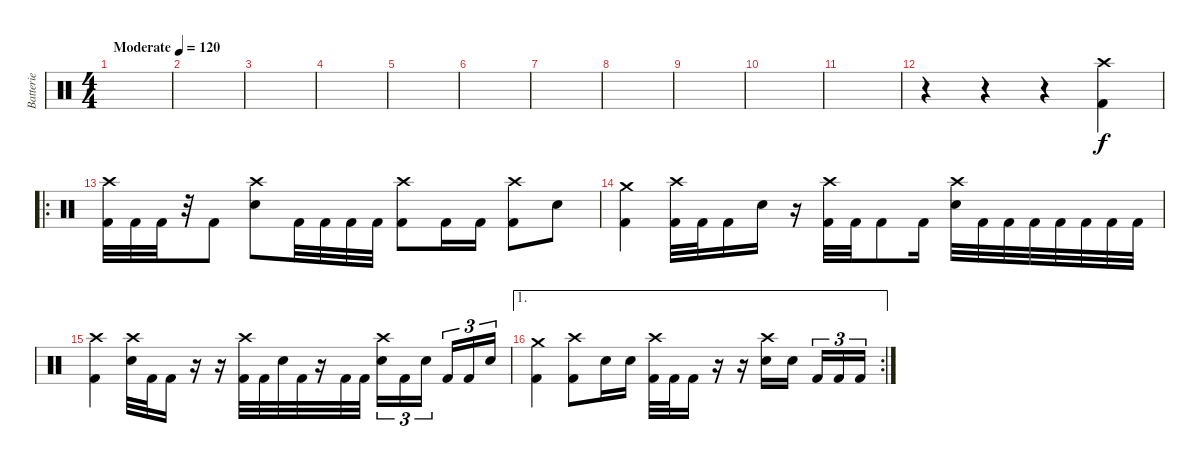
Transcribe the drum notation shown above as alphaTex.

\track ("Batterie" "Batterie") {instrument percussion}
\staff {score}
\articulation defaults
\ts (4 4)
\tempo (120 "Moderate")
\clef neutral
\ks c
|
|
|
|
|
|
|
|
|
|
|
r.4 r.4 r.4 ("Crash high (hit)" "Kick (hit) 2").4 |
\ro
("Crash high (hit)" "Kick (hit) 2").32 "Kick (hit) 2".32 "Kick (hit) 2".32 r.32 "Kick (hit) 2".8 ("Crash high (hit)" "Electric Snare (hit)").8 "Kick (hit) 2".32 "Kick (hit) 2".32 "Kick (hit) 2".32 "Kick (hit) 2".32 ("Crash high (hit)" "Kick (hit) 2").8 "Kick (hit) 2".16 "Kick (hit) 2".16 ("Crash high (hit)" "Kick (hit) 2").8 "Electric Snare (hit)".8 |
("Crash medium (hit)" "Kick (hit) 2").4 ("Crash high (hit)" "Kick (hit) 2").32 "Kick (hit) 2".32 "Kick (hit) 2".16 "Electric Snare (hit)".16 r.16 ("Crash high (hit)" "Kick (hit) 2").32 "Kick (hit) 2".32 "Kick (hit) 2".8 "Kick (hit) 2".16 ("Crash high (hit)" "Electric Snare (hit)").32 "Kick (hit) 2".32 "Kick (hit) 2".32 "Kick (hit) 2".32 "Kick (hit) 2".32 "Kick (hit) 2".32 "Kick (hit) 2".32 "Kick (hit) 2".32 |
("Crash high (hit)" "Kick (hit) 2").4 ("Crash high (hit)" "Electric Snare (hit)").32 "Kick (hit) 2".32 "Kick (hit) 2".16 r.16 r.16 ("Crash high (hit)" "Kick (hit) 2").32 "Kick (hit) 2".32 "Electric Snare (hit)".32 "Kick (hit) 2".32 r.16 "Kick (hit) 2".32 "Kick (hit) 2".32 ("Crash high (hit)" "Electric Snare (hit)").16{tu (3 2)} "Kick (hit) 2".16{tu (3 2)} "Electric Snare (hit)".16{tu (3 2) beam splitsecondary} "Kick (hit) 2".16{tu (3 2)} "Kick (hit) 2".16{tu (3 2)} "Electric Snare (hit)".16{tu (3 2)} |
\ae 1
\rc 2
("Crash medium (hit)" "Kick (hit) 2").4 ("Crash high (hit)" "Kick (hit) 2").8 "Electric Snare (hit)".16 "Electric Snare (hit)".16 ("Crash high (hit)" "Kick (hit) 2").32 "Kick (hit) 2".32 "Kick (hit) 2".16 r.16 r.16 ("Crash high (hit)" "Electric Snare (hit)").16 "Electric Snare (hit)".16{beam splitsecondary} "Kick (hit) 2".16{tu (3 2)} "Kick (hit) 2".16{tu (3 2)} "Kick (hit) 2".16{tu (3 2)}
